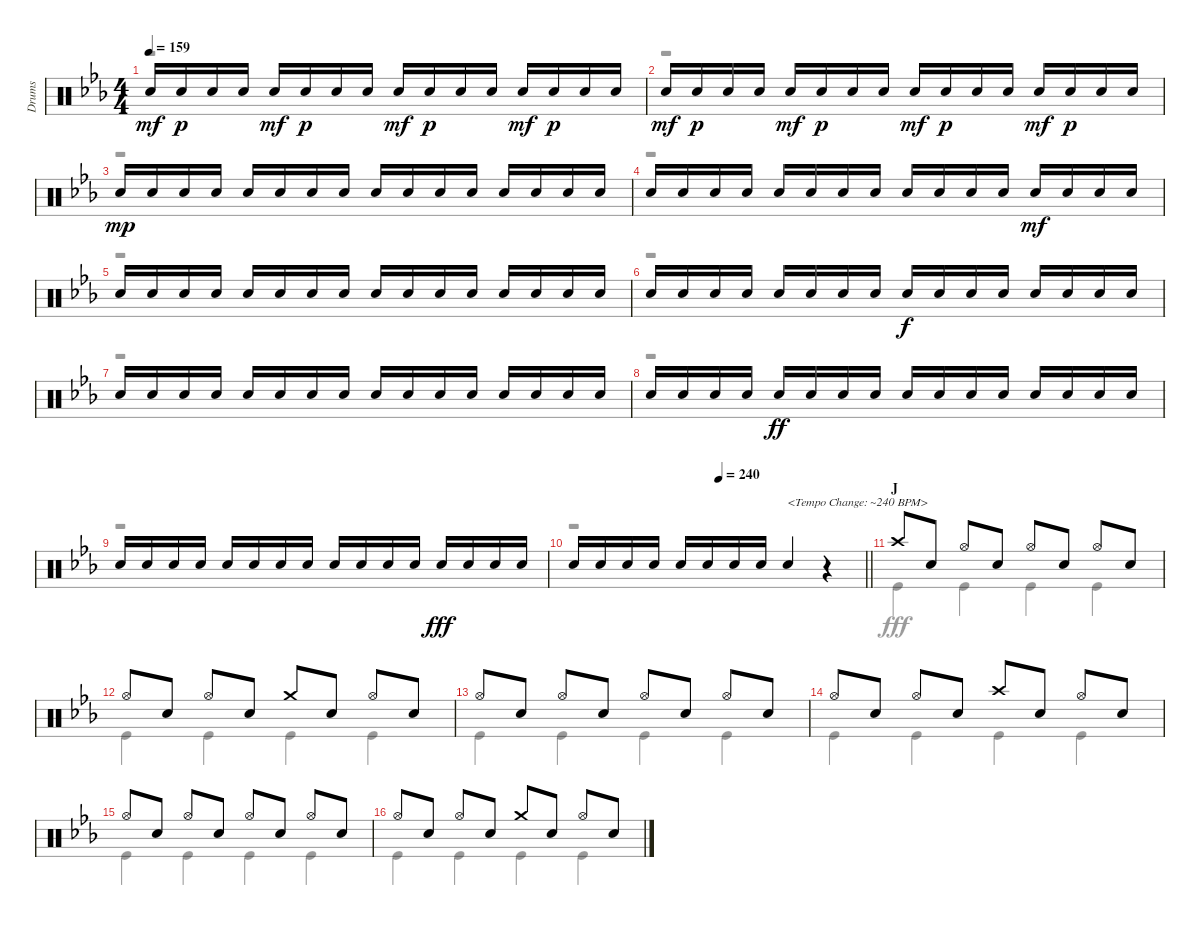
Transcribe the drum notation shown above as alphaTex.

\track ("Drums" "Drums") {instrument percussion}
\staff {score}
\articulation defaults
\voice
\ts (4 4)
\tempo 159
\clef neutral
\ks eb "Snare (hit) 2".16{dy mf} "Snare (hit) 2".16{dy p} "Snare (hit) 2".16 "Snare (hit) 2".16 "Snare (hit) 2".16{dy mf} "Snare (hit) 2".16{dy p} "Snare (hit) 2".16 "Snare (hit) 2".16 "Snare (hit) 2".16{dy mf} "Snare (hit) 2".16{dy p} "Snare (hit) 2".16 "Snare (hit) 2".16 "Snare (hit) 2".16{dy mf} "Snare (hit) 2".16{dy p} "Snare (hit) 2".16 "Snare (hit) 2".16
|
"Snare (hit) 2".16{dy mf} "Snare (hit) 2".16{dy p} "Snare (hit) 2".16 "Snare (hit) 2".16 "Snare (hit) 2".16{dy mf} "Snare (hit) 2".16{dy p} "Snare (hit) 2".16 "Snare (hit) 2".16 "Snare (hit) 2".16{dy mf} "Snare (hit) 2".16{dy p} "Snare (hit) 2".16 "Snare (hit) 2".16 "Snare (hit) 2".16{dy mf} "Snare (hit) 2".16{dy p} "Snare (hit) 2".16 "Snare (hit) 2".16 |
"Snare (hit) 2".16{dy mp} "Snare (hit) 2".16 "Snare (hit) 2".16 "Snare (hit) 2".16 "Snare (hit) 2".16 "Snare (hit) 2".16 "Snare (hit) 2".16 "Snare (hit) 2".16 "Snare (hit) 2".16 "Snare (hit) 2".16 "Snare (hit) 2".16 "Snare (hit) 2".16 "Snare (hit) 2".16 "Snare (hit) 2".16 "Snare (hit) 2".16 "Snare (hit) 2".16 |
"Snare (hit) 2".16 "Snare (hit) 2".16 "Snare (hit) 2".16 "Snare (hit) 2".16 "Snare (hit) 2".16 "Snare (hit) 2".16 "Snare (hit) 2".16 "Snare (hit) 2".16 "Snare (hit) 2".16 "Snare (hit) 2".16 "Snare (hit) 2".16 "Snare (hit) 2".16 "Snare (hit) 2".16{dy mf} "Snare (hit) 2".16 "Snare (hit) 2".16 "Snare (hit) 2".16 |
"Snare (hit) 2".16 "Snare (hit) 2".16 "Snare (hit) 2".16 "Snare (hit) 2".16 "Snare (hit) 2".16 "Snare (hit) 2".16 "Snare (hit) 2".16 "Snare (hit) 2".16 "Snare (hit) 2".16 "Snare (hit) 2".16 "Snare (hit) 2".16 "Snare (hit) 2".16 "Snare (hit) 2".16 "Snare (hit) 2".16 "Snare (hit) 2".16 "Snare (hit) 2".16 |
"Snare (hit) 2".16 "Snare (hit) 2".16 "Snare (hit) 2".16 "Snare (hit) 2".16 "Snare (hit) 2".16 "Snare (hit) 2".16 "Snare (hit) 2".16 "Snare (hit) 2".16 "Snare (hit) 2".16{dy f} "Snare (hit) 2".16 "Snare (hit) 2".16 "Snare (hit) 2".16 "Snare (hit) 2".16 "Snare (hit) 2".16 "Snare (hit) 2".16 "Snare (hit) 2".16 |
"Snare (hit) 2".16 "Snare (hit) 2".16 "Snare (hit) 2".16 "Snare (hit) 2".16 "Snare (hit) 2".16 "Snare (hit) 2".16 "Snare (hit) 2".16 "Snare (hit) 2".16 "Snare (hit) 2".16 "Snare (hit) 2".16 "Snare (hit) 2".16 "Snare (hit) 2".16 "Snare (hit) 2".16 "Snare (hit) 2".16 "Snare (hit) 2".16 "Snare (hit) 2".16 |
"Snare (hit) 2".16 "Snare (hit) 2".16 "Snare (hit) 2".16 "Snare (hit) 2".16 "Snare (hit) 2".16{dy ff} "Snare (hit) 2".16 "Snare (hit) 2".16 "Snare (hit) 2".16 "Snare (hit) 2".16 "Snare (hit) 2".16 "Snare (hit) 2".16 "Snare (hit) 2".16 "Snare (hit) 2".16 "Snare (hit) 2".16 "Snare (hit) 2".16 "Snare (hit) 2".16 |
"Snare (hit) 2".16 "Snare (hit) 2".16 "Snare (hit) 2".16 "Snare (hit) 2".16 "Snare (hit) 2".16 "Snare (hit) 2".16 "Snare (hit) 2".16 "Snare (hit) 2".16 "Snare (hit) 2".16 "Snare (hit) 2".16 "Snare (hit) 2".16 "Snare (hit) 2".16 "Snare (hit) 2".16{dy fff} "Snare (hit) 2".16 "Snare (hit) 2".16 "Snare (hit) 2".16 |
\tempo (240 0.5)
\barLineRight lightlight "Snare (hit) 2".16 "Snare (hit) 2".16 "Snare (hit) 2".16 "Snare (hit) 2".16 "Snare (hit) 2".16 "Snare (hit) 2".16 "Snare (hit) 2".16 "Snare (hit) 2".16 "Snare (hit) 2".4{txt "<Tempo Change: ~240 BPM>"}
r.4 |
\section ("" "J")
"Crash high (hit)".8 "Snare (hit) 2".8 "Hi-Hat (open)".8 "Snare (hit) 2".8 "Hi-Hat (open)".8 "Snare (hit) 2".8 "Hi-Hat (open)".8 "Snare (hit) 2".8 |
"Hi-Hat (open)".8 "Snare (hit) 2".8 "Hi-Hat (open)".8 "Snare (hit) 2".8 "Crash medium (hit)".8 "Snare (hit) 2".8 "Hi-Hat (open)".8 "Snare (hit) 2".8 |
"Hi-Hat (open)".8 "Snare (hit) 2".8 "Hi-Hat (open)".8 "Snare (hit) 2".8 "Hi-Hat (open)".8 "Snare (hit) 2".8 "Hi-Hat (open)".8 "Snare (hit) 2".8 |
"Hi-Hat (open)".8 "Snare (hit) 2".8 "Hi-Hat (open)".8 "Snare (hit) 2".8 "Crash high (hit)".8 "Snare (hit) 2".8 "Hi-Hat (open)".8 "Snare (hit) 2".8 |
"Hi-Hat (open)".8 "Snare (hit) 2".8 "Hi-Hat (open)".8 "Snare (hit) 2".8 "Hi-Hat (open)".8 "Snare (hit) 2".8 "Hi-Hat (open)".8 "Snare (hit) 2".8 |
"Hi-Hat (open)".8 "Snare (hit) 2".8 "Hi-Hat (open)".8 "Snare (hit) 2".8 "Crash medium (hit)".8 "Snare (hit) 2".8 "Hi-Hat (open)".8 "Snare (hit) 2".8
\voice
\clef neutral
\ottava regular
\simile none
\ks eb
r.1{dy fff} |
r.1 |
r.1 |
r.1 |
r.1 |
r.1 |
r.1 |
r.1 |
r.1 |
\barLineRight lightlight
r.1 |
"Kick (hit)".4 "Kick (hit)".4 "Kick (hit)".4 "Kick (hit)".4 |
"Kick (hit)".4 "Kick (hit)".4 "Kick (hit)".4 "Kick (hit)".4 |
"Kick (hit)".4 "Kick (hit)".4 "Kick (hit)".4 "Kick (hit)".4 |
"Kick (hit)".4 "Kick (hit)".4 "Kick (hit)".4 "Kick (hit)".4 |
"Kick (hit)".4 "Kick (hit)".4 "Kick (hit)".4 "Kick (hit)".4 |
"Kick (hit)".4 "Kick (hit)".4 "Kick (hit)".4 "Kick (hit)".4
